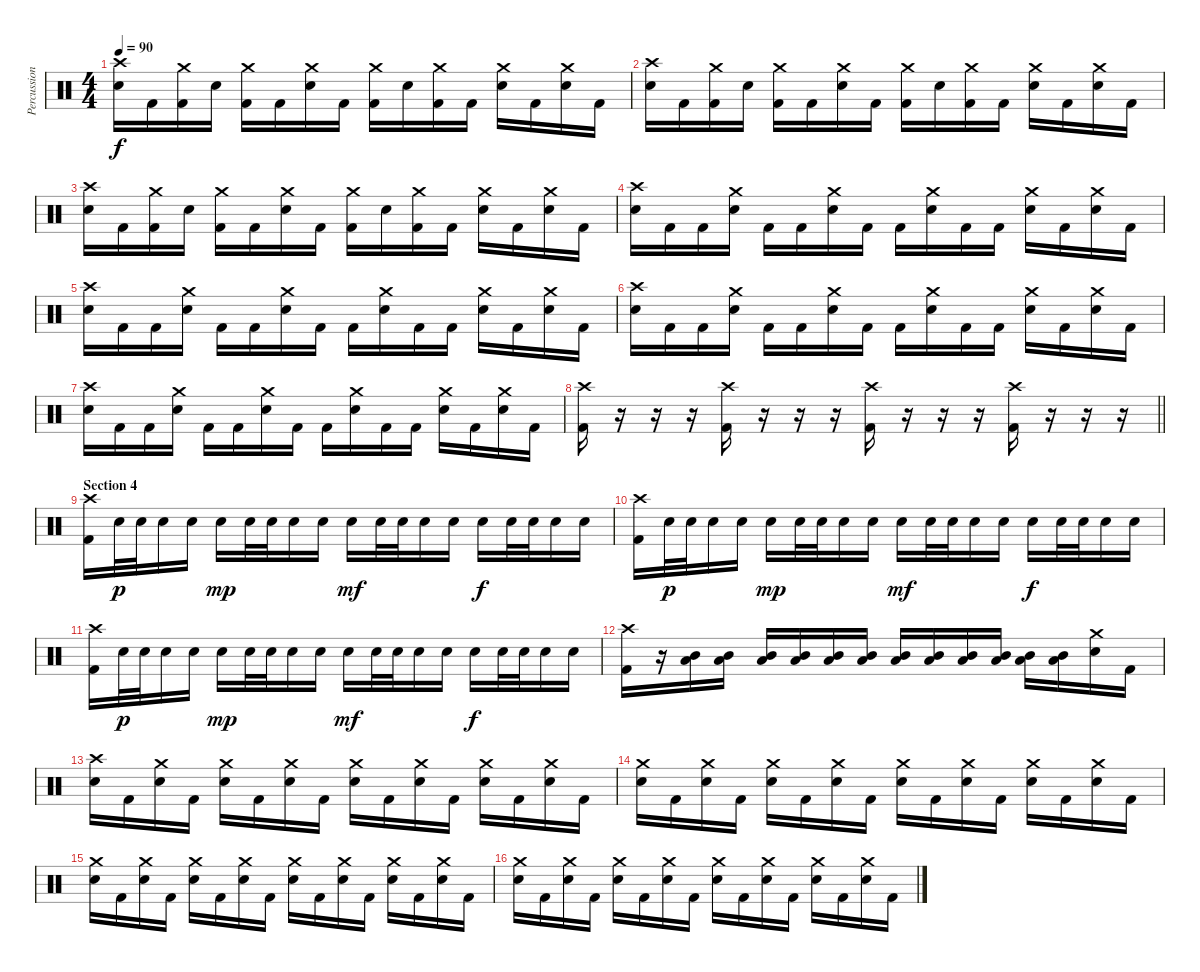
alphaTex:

\track ("Percussion" "Percussion") {instrument percussion}
\staff {score}
\articulation defaults
\ts (4 4)
\tempo 90
\clef neutral
\ks c
("Crash high (hit)" "Electric Snare (hit)").16{dy f} "Kick (hit) 2".16 ("Crash medium (hit)" "Kick (hit) 2").16 "Electric Snare (hit)".16 ("Crash medium (hit)" "Kick (hit) 2").16 "Kick (hit) 2".16 ("Crash medium (hit)" "Electric Snare (hit)").16 "Kick (hit) 2".16 ("Crash medium (hit)" "Kick (hit) 2").16 "Electric Snare (hit)".16 ("Crash medium (hit)" "Kick (hit) 2").16 "Kick (hit) 2".16 ("Crash medium (hit)" "Electric Snare (hit)").16 "Kick (hit) 2".16 ("Crash medium (hit)" "Electric Snare (hit)").16 "Kick (hit) 2".16 |
("Crash high (hit)" "Electric Snare (hit)").16 "Kick (hit) 2".16 ("Crash medium (hit)" "Kick (hit) 2").16 "Electric Snare (hit)".16 ("Crash medium (hit)" "Kick (hit) 2").16 "Kick (hit) 2".16 ("Crash medium (hit)" "Electric Snare (hit)").16 "Kick (hit) 2".16 ("Crash medium (hit)" "Kick (hit) 2").16 "Electric Snare (hit)".16 ("Crash medium (hit)" "Kick (hit) 2").16 "Kick (hit) 2".16 ("Crash medium (hit)" "Electric Snare (hit)").16 "Kick (hit) 2".16 ("Crash medium (hit)" "Electric Snare (hit)").16 "Kick (hit) 2".16 |
("Crash high (hit)" "Electric Snare (hit)").16 "Kick (hit) 2".16 ("Crash medium (hit)" "Kick (hit) 2").16 "Electric Snare (hit)".16 ("Crash medium (hit)" "Kick (hit) 2").16 "Kick (hit) 2".16 ("Crash medium (hit)" "Electric Snare (hit)").16 "Kick (hit) 2".16 ("Crash medium (hit)" "Kick (hit) 2").16 "Electric Snare (hit)".16 ("Crash medium (hit)" "Kick (hit) 2").16 "Kick (hit) 2".16 ("Crash medium (hit)" "Electric Snare (hit)").16 "Kick (hit) 2".16 ("Crash medium (hit)" "Electric Snare (hit)").16 "Kick (hit) 2".16 |
("Crash high (hit)" "Electric Snare (hit)").16 "Kick (hit) 2".16 "Kick (hit) 2".16 ("Crash medium (hit)" "Electric Snare (hit)").16 "Kick (hit) 2".16 "Kick (hit) 2".16 ("Crash medium (hit)" "Electric Snare (hit)").16 "Kick (hit) 2".16 "Kick (hit) 2".16 ("Crash medium (hit)" "Electric Snare (hit)").16 "Kick (hit) 2".16 "Kick (hit) 2".16 ("Crash medium (hit)" "Electric Snare (hit)").16 "Kick (hit) 2".16 ("Crash medium (hit)" "Electric Snare (hit)").16 "Kick (hit) 2".16 |
("Crash high (hit)" "Electric Snare (hit)").16 "Kick (hit) 2".16 "Kick (hit) 2".16 ("Crash medium (hit)" "Electric Snare (hit)").16 "Kick (hit) 2".16 "Kick (hit) 2".16 ("Crash medium (hit)" "Electric Snare (hit)").16 "Kick (hit) 2".16 "Kick (hit) 2".16 ("Crash medium (hit)" "Electric Snare (hit)").16 "Kick (hit) 2".16 "Kick (hit) 2".16 ("Crash medium (hit)" "Electric Snare (hit)").16 "Kick (hit) 2".16 ("Crash medium (hit)" "Electric Snare (hit)").16 "Kick (hit) 2".16 |
("Crash high (hit)" "Electric Snare (hit)").16 "Kick (hit) 2".16 "Kick (hit) 2".16 ("Crash medium (hit)" "Electric Snare (hit)").16 "Kick (hit) 2".16 "Kick (hit) 2".16 ("Crash medium (hit)" "Electric Snare (hit)").16 "Kick (hit) 2".16 "Kick (hit) 2".16 ("Crash medium (hit)" "Electric Snare (hit)").16 "Kick (hit) 2".16 "Kick (hit) 2".16 ("Crash medium (hit)" "Electric Snare (hit)").16 "Kick (hit) 2".16 ("Crash medium (hit)" "Electric Snare (hit)").16 "Kick (hit) 2".16 |
("Crash high (hit)" "Electric Snare (hit)").16 "Kick (hit) 2".16 "Kick (hit) 2".16 ("Crash medium (hit)" "Electric Snare (hit)").16 "Kick (hit) 2".16 "Kick (hit) 2".16 ("Crash medium (hit)" "Electric Snare (hit)").16 "Kick (hit) 2".16 "Kick (hit) 2".16 ("Crash medium (hit)" "Electric Snare (hit)").16 "Kick (hit) 2".16 "Kick (hit) 2".16 ("Crash medium (hit)" "Electric Snare (hit)").16 "Kick (hit) 2".16 ("Crash medium (hit)" "Electric Snare (hit)").16 "Kick (hit) 2".16 |
\barLineRight lightlight
("Crash high (hit)" "Kick (hit) 2").16 r.16 r.16 r.16 ("Crash high (hit)" "Kick (hit) 2").16 r.16 r.16 r.16 ("Crash high (hit)" "Kick (hit) 2").16 r.16 r.16 r.16 ("Crash high (hit)" "Kick (hit) 2").16 r.16 r.16 r.16 |
\section ("" "Section 4")
("Crash high (hit)" "Kick (hit) 2").16 "Electric Snare (hit)".32{dy p} "Electric Snare (hit)".32 "Electric Snare (hit)".16 "Electric Snare (hit)".16 "Electric Snare (hit)".16{dy mp} "Electric Snare (hit)".32 "Electric Snare (hit)".32 "Electric Snare (hit)".16 "Electric Snare (hit)".16 "Electric Snare (hit)".16{dy mf} "Electric Snare (hit)".32 "Electric Snare (hit)".32 "Electric Snare (hit)".16 "Electric Snare (hit)".16 "Electric Snare (hit)".16{dy f} "Electric Snare (hit)".32 "Electric Snare (hit)".32 "Electric Snare (hit)".16 "Electric Snare (hit)".16 |
("Crash high (hit)" "Kick (hit) 2").16 "Electric Snare (hit)".32{dy p} "Electric Snare (hit)".32 "Electric Snare (hit)".16 "Electric Snare (hit)".16 "Electric Snare (hit)".16{dy mp} "Electric Snare (hit)".32 "Electric Snare (hit)".32 "Electric Snare (hit)".16 "Electric Snare (hit)".16 "Electric Snare (hit)".16{dy mf} "Electric Snare (hit)".32 "Electric Snare (hit)".32 "Electric Snare (hit)".16 "Electric Snare (hit)".16 "Electric Snare (hit)".16{dy f} "Electric Snare (hit)".32 "Electric Snare (hit)".32 "Electric Snare (hit)".16 "Electric Snare (hit)".16 |
("Crash high (hit)" "Kick (hit) 2").16 "Electric Snare (hit)".32{dy p} "Electric Snare (hit)".32 "Electric Snare (hit)".16 "Electric Snare (hit)".16 "Electric Snare (hit)".16{dy mp} "Electric Snare (hit)".32 "Electric Snare (hit)".32 "Electric Snare (hit)".16 "Electric Snare (hit)".16 "Electric Snare (hit)".16{dy mf} "Electric Snare (hit)".32 "Electric Snare (hit)".32 "Electric Snare (hit)".16 "Electric Snare (hit)".16 "Electric Snare (hit)".16{dy f} "Electric Snare (hit)".32 "Electric Snare (hit)".32 "Electric Snare (hit)".16 "Electric Snare (hit)".16 |
("Crash high (hit)" "Kick (hit) 2").16 r.16 ("Mid Tom (hit)" "Low Tom (hit)").16 ("Mid Tom (hit)" "Low Tom (hit)").16 ("Mid Tom (hit)" "Low Tom (hit)").16 ("Mid Tom (hit)" "Low Tom (hit)").16 ("Mid Tom (hit)" "Low Tom (hit)").16 ("Mid Tom (hit)" "Low Tom (hit)").16 ("Mid Tom (hit)" "Low Tom (hit)").16 ("Mid Tom (hit)" "Low Tom (hit)").16 ("Mid Tom (hit)" "Low Tom (hit)").16 ("Mid Tom (hit)" "Low Tom (hit)").16 ("Mid Tom (hit)" "Low Tom (hit)").16 ("Mid Tom (hit)" "Low Tom (hit)").16 ("Crash medium (hit)" "Electric Snare (hit)").16 "Kick (hit) 2".16 |
("Crash high (hit)" "Electric Snare (hit)").16 "Kick (hit) 2".16 ("Crash medium (hit)" "Electric Snare (hit)").16 "Kick (hit) 2".16 ("Crash medium (hit)" "Electric Snare (hit)").16 "Kick (hit) 2".16 ("Crash medium (hit)" "Electric Snare (hit)").16 "Kick (hit) 2".16 ("Crash medium (hit)" "Electric Snare (hit)").16 "Kick (hit) 2".16 ("Crash medium (hit)" "Electric Snare (hit)").16 "Kick (hit) 2".16 ("Crash medium (hit)" "Electric Snare (hit)").16 "Kick (hit) 2".16 ("Crash medium (hit)" "Electric Snare (hit)").16 "Kick (hit) 2".16 |
("Crash medium (hit)" "Electric Snare (hit)").16 "Kick (hit) 2".16 ("Crash medium (hit)" "Electric Snare (hit)").16 "Kick (hit) 2".16 ("Crash medium (hit)" "Electric Snare (hit)").16 "Kick (hit) 2".16 ("Crash medium (hit)" "Electric Snare (hit)").16 "Kick (hit) 2".16 ("Crash medium (hit)" "Electric Snare (hit)").16 "Kick (hit) 2".16 ("Crash medium (hit)" "Electric Snare (hit)").16 "Kick (hit) 2".16 ("Crash medium (hit)" "Electric Snare (hit)").16 "Kick (hit) 2".16 ("Crash medium (hit)" "Electric Snare (hit)").16 "Kick (hit) 2".16 |
("Crash medium (hit)" "Electric Snare (hit)").16 "Kick (hit) 2".16 ("Crash medium (hit)" "Electric Snare (hit)").16 "Kick (hit) 2".16 ("Crash medium (hit)" "Electric Snare (hit)").16 "Kick (hit) 2".16 ("Crash medium (hit)" "Electric Snare (hit)").16 "Kick (hit) 2".16 ("Crash medium (hit)" "Electric Snare (hit)").16 "Kick (hit) 2".16 ("Crash medium (hit)" "Electric Snare (hit)").16 "Kick (hit) 2".16 ("Crash medium (hit)" "Electric Snare (hit)").16 "Kick (hit) 2".16 ("Crash medium (hit)" "Electric Snare (hit)").16 "Kick (hit) 2".16 |
("Crash medium (hit)" "Electric Snare (hit)").16 "Kick (hit) 2".16 ("Crash medium (hit)" "Electric Snare (hit)").16 "Kick (hit) 2".16 ("Crash medium (hit)" "Electric Snare (hit)").16 "Kick (hit) 2".16 ("Crash medium (hit)" "Electric Snare (hit)").16 "Kick (hit) 2".16 ("Crash medium (hit)" "Electric Snare (hit)").16 "Kick (hit) 2".16 ("Crash medium (hit)" "Electric Snare (hit)").16 "Kick (hit) 2".16 ("Crash medium (hit)" "Electric Snare (hit)").16 "Kick (hit) 2".16 ("Crash medium (hit)" "Electric Snare (hit)").16 "Kick (hit) 2".16
